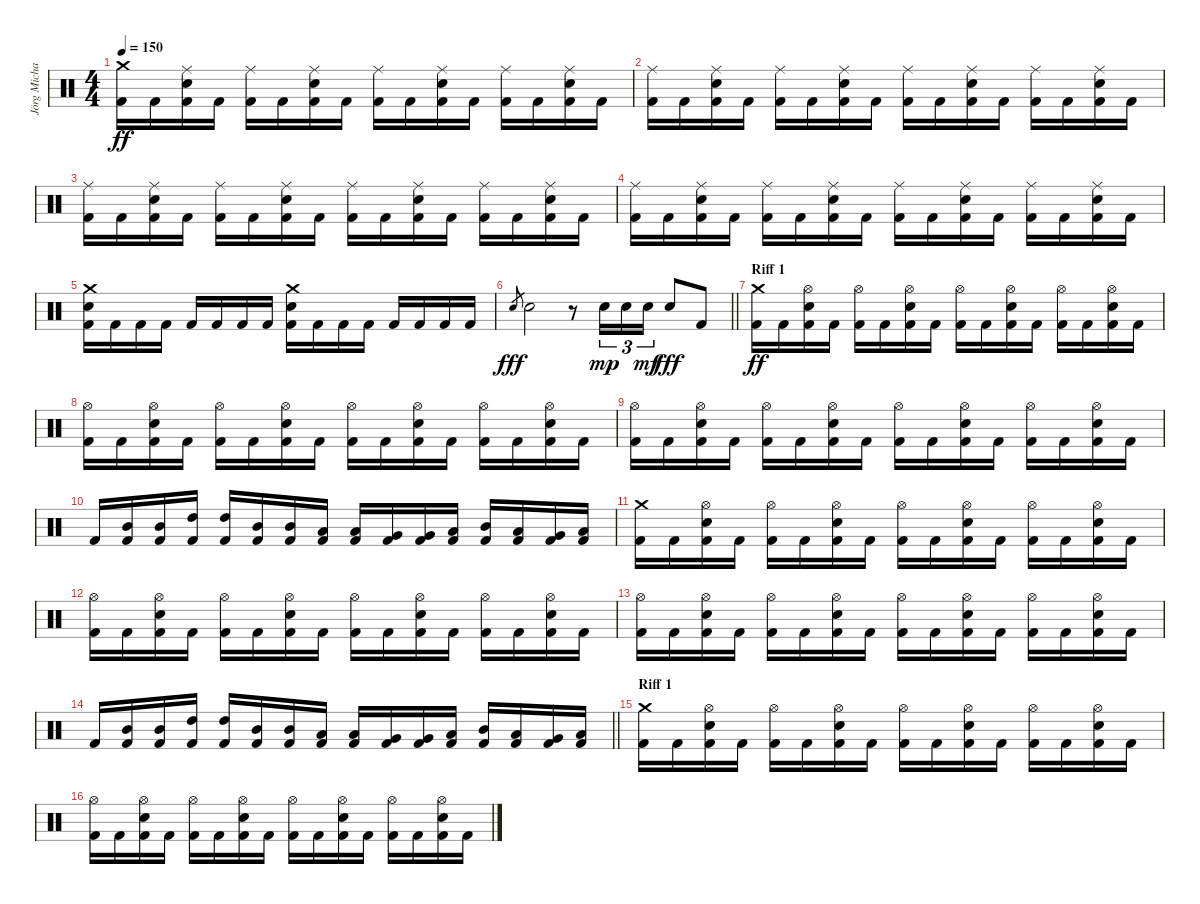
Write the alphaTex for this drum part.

\track ("Jörg Michael" "Jörg Micha") {instrument percussion}
\staff {score}
\articulation defaults
\ts (4 4)
\tempo 150
\clef neutral
\ks c
("Crash medium (hit)" "Kick (hit) 2").16{dy ff} "Kick (hit) 2".16 ("Ride (middle)" "Electric Snare (hit)" "Kick (hit) 2").16 "Kick (hit) 2".16 ("Ride (middle)" "Kick (hit) 2").16 "Kick (hit) 2".16 ("Ride (middle)" "Electric Snare (hit)" "Kick (hit) 2").16 "Kick (hit) 2".16 ("Ride (middle)" "Kick (hit) 2").16 "Kick (hit) 2".16 ("Ride (middle)" "Electric Snare (hit)" "Kick (hit) 2").16 "Kick (hit) 2".16 ("Ride (middle)" "Kick (hit) 2").16 "Kick (hit) 2".16 ("Ride (middle)" "Electric Snare (hit)" "Kick (hit) 2").16 "Kick (hit) 2".16 |
("Ride (middle)" "Kick (hit) 2").16 "Kick (hit) 2".16 ("Ride (middle)" "Electric Snare (hit)" "Kick (hit) 2").16 "Kick (hit) 2".16 ("Ride (middle)" "Kick (hit) 2").16 "Kick (hit) 2".16 ("Ride (middle)" "Electric Snare (hit)" "Kick (hit) 2").16 "Kick (hit) 2".16 ("Ride (middle)" "Kick (hit) 2").16 "Kick (hit) 2".16 ("Ride (middle)" "Electric Snare (hit)" "Kick (hit) 2").16 "Kick (hit) 2".16 ("Ride (middle)" "Kick (hit) 2").16 "Kick (hit) 2".16 ("Ride (middle)" "Electric Snare (hit)" "Kick (hit) 2").16 "Kick (hit) 2".16 |
("Ride (middle)" "Kick (hit) 2").16 "Kick (hit) 2".16 ("Ride (middle)" "Electric Snare (hit)" "Kick (hit) 2").16 "Kick (hit) 2".16 ("Ride (middle)" "Kick (hit) 2").16 "Kick (hit) 2".16 ("Ride (middle)" "Electric Snare (hit)" "Kick (hit) 2").16 "Kick (hit) 2".16 ("Ride (middle)" "Kick (hit) 2").16 "Kick (hit) 2".16 ("Ride (middle)" "Electric Snare (hit)" "Kick (hit) 2").16 "Kick (hit) 2".16 ("Ride (middle)" "Kick (hit) 2").16 "Kick (hit) 2".16 ("Ride (middle)" "Electric Snare (hit)" "Kick (hit) 2").16 "Kick (hit) 2".16 |
("Ride (middle)" "Kick (hit) 2").16 "Kick (hit) 2".16 ("Ride (middle)" "Electric Snare (hit)" "Kick (hit) 2").16 "Kick (hit) 2".16 ("Ride (middle)" "Kick (hit) 2").16 "Kick (hit) 2".16 ("Ride (middle)" "Electric Snare (hit)" "Kick (hit) 2").16 "Kick (hit) 2".16 ("Ride (middle)" "Kick (hit) 2").16 "Kick (hit) 2".16 ("Ride (middle)" "Electric Snare (hit)" "Kick (hit) 2").16 "Kick (hit) 2".16 ("Ride (middle)" "Kick (hit) 2").16 "Kick (hit) 2".16 ("Ride (middle)" "Electric Snare (hit)" "Kick (hit) 2").16 "Kick (hit) 2".16 |
("Crash medium (hit)" "Electric Snare (hit)" "Kick (hit) 2").16 "Kick (hit) 2".16 "Kick (hit) 2".16 "Kick (hit) 2".16 "Kick (hit) 2".16 "Kick (hit) 2".16 "Kick (hit) 2".16 "Kick (hit) 2".16 ("Crash medium (hit)" "Electric Snare (hit)" "Kick (hit) 2").16 "Kick (hit) 2".16 "Kick (hit) 2".16 "Kick (hit) 2".16 "Kick (hit) 2".16 "Kick (hit) 2".16 "Kick (hit) 2".16 "Kick (hit) 2".16 |
\barLineRight lightlight "Electric Snare (hit)".8{gr dy fff} "Electric Snare (hit)".2
r.8 "Electric Snare (hit)".16{tu (3 2) dy mp} "Electric Snare (hit)".16{tu (3 2)} "Electric Snare (hit)".16{tu (3 2) dy mf} "Electric Snare (hit)".8{dy fff} "Kick (hit) 2".8 |
\section ("" "Riff 1")
("Crash medium (hit)" "Kick (hit) 2").16{dy ff} "Kick (hit) 2".16 ("Hi-Hat (open)" "Electric Snare (hit)" "Kick (hit) 2").16 "Kick (hit) 2".16 ("Hi-Hat (open)" "Kick (hit) 2").16 "Kick (hit) 2".16 ("Hi-Hat (open)" "Electric Snare (hit)" "Kick (hit) 2").16 "Kick (hit) 2".16 ("Hi-Hat (open)" "Kick (hit) 2").16 "Kick (hit) 2".16 ("Hi-Hat (open)" "Electric Snare (hit)" "Kick (hit) 2").16 "Kick (hit) 2".16 ("Hi-Hat (open)" "Kick (hit) 2").16 "Kick (hit) 2".16 ("Hi-Hat (open)" "Electric Snare (hit)" "Kick (hit) 2").16 "Kick (hit) 2".16 |
("Hi-Hat (open)" "Kick (hit) 2").16 "Kick (hit) 2".16 ("Hi-Hat (open)" "Electric Snare (hit)" "Kick (hit) 2").16 "Kick (hit) 2".16 ("Hi-Hat (open)" "Kick (hit) 2").16 "Kick (hit) 2".16 ("Hi-Hat (open)" "Electric Snare (hit)" "Kick (hit) 2").16 "Kick (hit) 2".16 ("Hi-Hat (open)" "Kick (hit) 2").16 "Kick (hit) 2".16 ("Hi-Hat (open)" "Electric Snare (hit)" "Kick (hit) 2").16 "Kick (hit) 2".16 ("Hi-Hat (open)" "Kick (hit) 2").16 "Kick (hit) 2".16 ("Hi-Hat (open)" "Electric Snare (hit)" "Kick (hit) 2").16 "Kick (hit) 2".16 |
("Hi-Hat (open)" "Kick (hit) 2").16 "Kick (hit) 2".16 ("Hi-Hat (open)" "Electric Snare (hit)" "Kick (hit) 2").16 "Kick (hit) 2".16 ("Hi-Hat (open)" "Kick (hit) 2").16 "Kick (hit) 2".16 ("Hi-Hat (open)" "Electric Snare (hit)" "Kick (hit) 2").16 "Kick (hit) 2".16 ("Hi-Hat (open)" "Kick (hit) 2").16 "Kick (hit) 2".16 ("Hi-Hat (open)" "Electric Snare (hit)" "Kick (hit) 2").16 "Kick (hit) 2".16 ("Hi-Hat (open)" "Kick (hit) 2").16 "Kick (hit) 2".16 ("Hi-Hat (open)" "Electric Snare (hit)" "Kick (hit) 2").16 "Kick (hit) 2".16 |
"Kick (hit) 2".16 ("Mid Tom (hit)" "Kick (hit) 2").16 ("Mid Tom (hit)" "Kick (hit) 2").16 ("High Tom (hit)" "Kick (hit) 2").16 ("High Tom (hit)" "Kick (hit) 2").16 ("Mid Tom (hit)" "Kick (hit) 2").16 ("Mid Tom (hit)" "Kick (hit) 2").16 ("Low Tom (hit)" "Kick (hit) 2").16 ("Low Tom (hit)" "Kick (hit) 2").16 ("Very Low Tom (hit)" "Kick (hit) 2").16 ("Very Low Tom (hit)" "Kick (hit) 2").16 ("Low Tom (hit)" "Kick (hit) 2").16 ("Mid Tom (hit)" "Kick (hit) 2").16 ("Low Tom (hit)" "Kick (hit) 2").16 ("Very Low Tom (hit)" "Kick (hit) 2").16 ("Low Floor Tom (hit)" "Kick (hit) 2").16 |
("Crash medium (hit)" "Kick (hit) 2").16 "Kick (hit) 2".16 ("Hi-Hat (open)" "Electric Snare (hit)" "Kick (hit) 2").16 "Kick (hit) 2".16 ("Hi-Hat (open)" "Kick (hit) 2").16 "Kick (hit) 2".16 ("Hi-Hat (open)" "Electric Snare (hit)" "Kick (hit) 2").16 "Kick (hit) 2".16 ("Hi-Hat (open)" "Kick (hit) 2").16 "Kick (hit) 2".16 ("Hi-Hat (open)" "Electric Snare (hit)" "Kick (hit) 2").16 "Kick (hit) 2".16 ("Hi-Hat (open)" "Kick (hit) 2").16 "Kick (hit) 2".16 ("Hi-Hat (open)" "Electric Snare (hit)" "Kick (hit) 2").16 "Kick (hit) 2".16 |
("Hi-Hat (open)" "Kick (hit) 2").16 "Kick (hit) 2".16 ("Hi-Hat (open)" "Electric Snare (hit)" "Kick (hit) 2").16 "Kick (hit) 2".16 ("Hi-Hat (open)" "Kick (hit) 2").16 "Kick (hit) 2".16 ("Hi-Hat (open)" "Electric Snare (hit)" "Kick (hit) 2").16 "Kick (hit) 2".16 ("Hi-Hat (open)" "Kick (hit) 2").16 "Kick (hit) 2".16 ("Hi-Hat (open)" "Electric Snare (hit)" "Kick (hit) 2").16 "Kick (hit) 2".16 ("Hi-Hat (open)" "Kick (hit) 2").16 "Kick (hit) 2".16 ("Hi-Hat (open)" "Electric Snare (hit)" "Kick (hit) 2").16 "Kick (hit) 2".16 |
("Hi-Hat (open)" "Kick (hit) 2").16 "Kick (hit) 2".16 ("Hi-Hat (open)" "Electric Snare (hit)" "Kick (hit) 2").16 "Kick (hit) 2".16 ("Hi-Hat (open)" "Kick (hit) 2").16 "Kick (hit) 2".16 ("Hi-Hat (open)" "Electric Snare (hit)" "Kick (hit) 2").16 "Kick (hit) 2".16 ("Hi-Hat (open)" "Kick (hit) 2").16 "Kick (hit) 2".16 ("Hi-Hat (open)" "Electric Snare (hit)" "Kick (hit) 2").16 "Kick (hit) 2".16 ("Hi-Hat (open)" "Kick (hit) 2").16 "Kick (hit) 2".16 ("Hi-Hat (open)" "Electric Snare (hit)" "Kick (hit) 2").16 "Kick (hit) 2".16 |
\barLineRight lightlight "Kick (hit) 2".16
("Mid Tom (hit)" "Kick (hit) 2").16 ("Mid Tom (hit)" "Kick (hit) 2").16 ("High Tom (hit)" "Kick (hit) 2").16 ("High Tom (hit)" "Kick (hit) 2").16 ("Mid Tom (hit)" "Kick (hit) 2").16 ("Mid Tom (hit)" "Kick (hit) 2").16 ("Low Tom (hit)" "Kick (hit) 2").16 ("Low Tom (hit)" "Kick (hit) 2").16 ("Very Low Tom (hit)" "Kick (hit) 2").16 ("Very Low Tom (hit)" "Kick (hit) 2").16 ("Low Tom (hit)" "Kick (hit) 2").16 ("Mid Tom (hit)" "Kick (hit) 2").16 ("Low Tom (hit)" "Kick (hit) 2").16 ("Very Low Tom (hit)" "Kick (hit) 2").16 ("Low Floor Tom (hit)" "Kick (hit) 2").16 |
\section ("" "Riff 1")
("Crash medium (hit)" "Kick (hit) 2").16 "Kick (hit) 2".16 ("Hi-Hat (open)" "Electric Snare (hit)" "Kick (hit) 2").16 "Kick (hit) 2".16 ("Hi-Hat (open)" "Kick (hit) 2").16 "Kick (hit) 2".16 ("Hi-Hat (open)" "Electric Snare (hit)" "Kick (hit) 2").16 "Kick (hit) 2".16 ("Hi-Hat (open)" "Kick (hit) 2").16 "Kick (hit) 2".16 ("Hi-Hat (open)" "Electric Snare (hit)" "Kick (hit) 2").16 "Kick (hit) 2".16 ("Hi-Hat (open)" "Kick (hit) 2").16 "Kick (hit) 2".16 ("Hi-Hat (open)" "Electric Snare (hit)" "Kick (hit) 2").16 "Kick (hit) 2".16 |
("Hi-Hat (open)" "Kick (hit) 2").16 "Kick (hit) 2".16 ("Hi-Hat (open)" "Electric Snare (hit)" "Kick (hit) 2").16 "Kick (hit) 2".16 ("Hi-Hat (open)" "Kick (hit) 2").16 "Kick (hit) 2".16 ("Hi-Hat (open)" "Electric Snare (hit)" "Kick (hit) 2").16 "Kick (hit) 2".16 ("Hi-Hat (open)" "Kick (hit) 2").16 "Kick (hit) 2".16 ("Hi-Hat (open)" "Electric Snare (hit)" "Kick (hit) 2").16 "Kick (hit) 2".16 ("Hi-Hat (open)" "Kick (hit) 2").16 "Kick (hit) 2".16 ("Hi-Hat (open)" "Electric Snare (hit)" "Kick (hit) 2").16 "Kick (hit) 2".16
